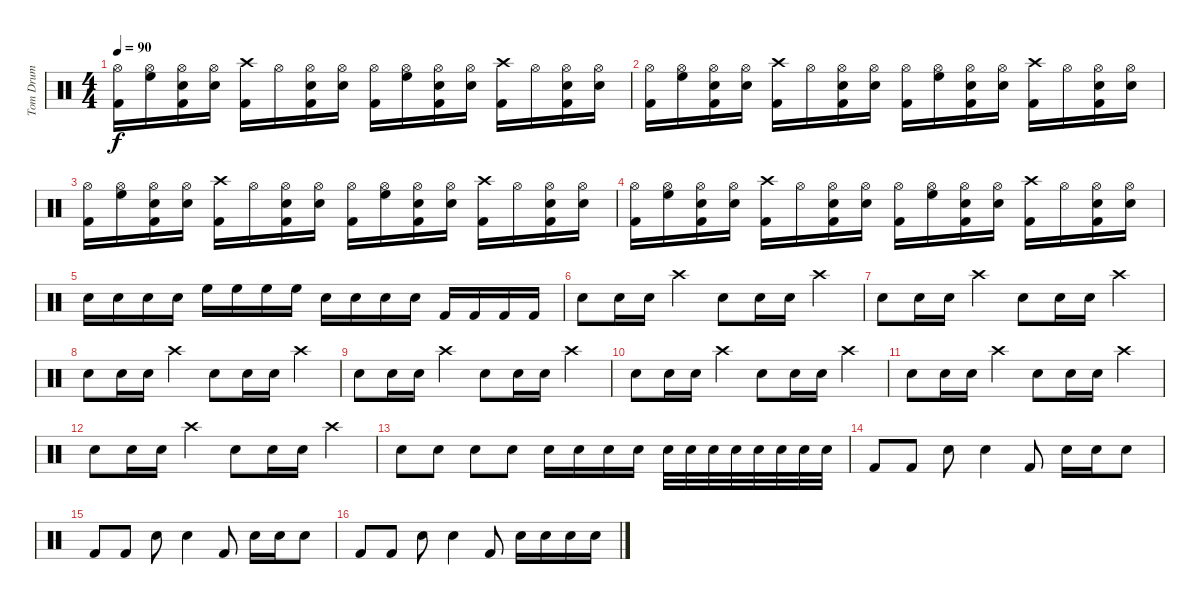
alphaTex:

\track ("Tom Drum" "Tom Drum") {instrument percussion}
\staff {score}
\articulation defaults
\ts (4 4)
\tempo 90
\clef neutral
\ks c
("Hi-Hat (open)" "Kick (hit) 2").16{dy f} ("Hi-Hat (open)" "High Floor Tom (hit)").16 ("Hi-Hat (open)" "Electric Snare (hit)" "Kick (hit) 2").16 ("Hi-Hat (open)" "Electric Snare (hit)").16 ("Crash high (hit)" "Kick (hit) 2").16 "Hi-Hat (open)".16 ("Hi-Hat (open)" "Electric Snare (hit)" "Kick (hit) 2").16 ("Hi-Hat (open)" "Electric Snare (hit)").16 ("Hi-Hat (open)" "Kick (hit) 2").16 ("Hi-Hat (open)" "High Floor Tom (hit)").16 ("Hi-Hat (open)" "Electric Snare (hit)" "Kick (hit) 2").16 ("Hi-Hat (open)" "Electric Snare (hit)").16 ("Crash high (hit)" "Kick (hit) 2").16 "Hi-Hat (open)".16 ("Hi-Hat (open)" "Electric Snare (hit)" "Kick (hit) 2").16 ("Hi-Hat (open)" "Electric Snare (hit)").16 |
("Hi-Hat (open)" "Kick (hit) 2").16 ("Hi-Hat (open)" "High Floor Tom (hit)").16 ("Hi-Hat (open)" "Electric Snare (hit)" "Kick (hit) 2").16 ("Hi-Hat (open)" "Electric Snare (hit)").16 ("Crash high (hit)" "Kick (hit) 2").16 "Hi-Hat (open)".16 ("Hi-Hat (open)" "Electric Snare (hit)" "Kick (hit) 2").16 ("Hi-Hat (open)" "Electric Snare (hit)").16 ("Hi-Hat (open)" "Kick (hit) 2").16 ("Hi-Hat (open)" "High Floor Tom (hit)").16 ("Hi-Hat (open)" "Electric Snare (hit)" "Kick (hit) 2").16 ("Hi-Hat (open)" "Electric Snare (hit)").16 ("Crash high (hit)" "Kick (hit) 2").16 "Hi-Hat (open)".16 ("Hi-Hat (open)" "Electric Snare (hit)" "Kick (hit) 2").16 ("Hi-Hat (open)" "Electric Snare (hit)").16 |
("Hi-Hat (open)" "Kick (hit) 2").16 ("Hi-Hat (open)" "High Floor Tom (hit)").16 ("Hi-Hat (open)" "Electric Snare (hit)" "Kick (hit) 2").16 ("Hi-Hat (open)" "Electric Snare (hit)").16 ("Crash high (hit)" "Kick (hit) 2").16 "Hi-Hat (open)".16 ("Hi-Hat (open)" "Electric Snare (hit)" "Kick (hit) 2").16 ("Hi-Hat (open)" "Electric Snare (hit)").16 ("Hi-Hat (open)" "Kick (hit) 2").16 ("Hi-Hat (open)" "High Floor Tom (hit)").16 ("Hi-Hat (open)" "Electric Snare (hit)" "Kick (hit) 2").16 ("Hi-Hat (open)" "Electric Snare (hit)").16 ("Crash high (hit)" "Kick (hit) 2").16 "Hi-Hat (open)".16 ("Hi-Hat (open)" "Electric Snare (hit)" "Kick (hit) 2").16 ("Hi-Hat (open)" "Electric Snare (hit)").16 |
("Hi-Hat (open)" "Kick (hit) 2").16 ("Hi-Hat (open)" "High Floor Tom (hit)").16 ("Hi-Hat (open)" "Electric Snare (hit)" "Kick (hit) 2").16 ("Hi-Hat (open)" "Electric Snare (hit)").16 ("Crash high (hit)" "Kick (hit) 2").16 "Hi-Hat (open)".16 ("Hi-Hat (open)" "Electric Snare (hit)" "Kick (hit) 2").16 ("Hi-Hat (open)" "Electric Snare (hit)").16 ("Hi-Hat (open)" "Kick (hit) 2").16 ("Hi-Hat (open)" "High Floor Tom (hit)").16 ("Hi-Hat (open)" "Electric Snare (hit)" "Kick (hit) 2").16 ("Hi-Hat (open)" "Electric Snare (hit)").16 ("Crash high (hit)" "Kick (hit) 2").16 "Hi-Hat (open)".16 ("Hi-Hat (open)" "Electric Snare (hit)" "Kick (hit) 2").16 ("Hi-Hat (open)" "Electric Snare (hit)").16 |
"Electric Snare (hit)".16 "Electric Snare (hit)".16 "Electric Snare (hit)".16 "Electric Snare (hit)".16 "High Floor Tom (hit)".16 "High Floor Tom (hit)".16 "High Floor Tom (hit)".16 "High Floor Tom (hit)".16 "Electric Snare (hit)".16 "Electric Snare (hit)".16 "Electric Snare (hit)".16 "Electric Snare (hit)".16 "Kick (hit) 2".16 "Kick (hit) 2".16 "Kick (hit) 2".16 "Kick (hit) 2".16 |
"Electric Snare (hit)".8 "Electric Snare (hit)".16 "Electric Snare (hit)".16 "Crash high (hit)".4 "Electric Snare (hit)".8 "Electric Snare (hit)".16 "Electric Snare (hit)".16 "Crash high (hit)".4 |
"Electric Snare (hit)".8 "Electric Snare (hit)".16 "Electric Snare (hit)".16 "Crash high (hit)".4 "Electric Snare (hit)".8 "Electric Snare (hit)".16 "Electric Snare (hit)".16 "Crash high (hit)".4 |
"Electric Snare (hit)".8 "Electric Snare (hit)".16 "Electric Snare (hit)".16 "Crash high (hit)".4 "Electric Snare (hit)".8 "Electric Snare (hit)".16 "Electric Snare (hit)".16 "Crash high (hit)".4 |
"Electric Snare (hit)".8 "Electric Snare (hit)".16 "Electric Snare (hit)".16 "Crash high (hit)".4 "Electric Snare (hit)".8 "Electric Snare (hit)".16 "Electric Snare (hit)".16 "Crash high (hit)".4 |
"Electric Snare (hit)".8 "Electric Snare (hit)".16 "Electric Snare (hit)".16 "Crash high (hit)".4 "Electric Snare (hit)".8 "Electric Snare (hit)".16 "Electric Snare (hit)".16 "Crash high (hit)".4 |
"Electric Snare (hit)".8 "Electric Snare (hit)".16 "Electric Snare (hit)".16 "Crash high (hit)".4 "Electric Snare (hit)".8 "Electric Snare (hit)".16 "Electric Snare (hit)".16 "Crash high (hit)".4 |
"Electric Snare (hit)".8 "Electric Snare (hit)".16 "Electric Snare (hit)".16 "Crash high (hit)".4 "Electric Snare (hit)".8 "Electric Snare (hit)".16 "Electric Snare (hit)".16 "Crash high (hit)".4 |
"Electric Snare (hit)".8 "Electric Snare (hit)".8 "Electric Snare (hit)".8 "Electric Snare (hit)".8 "Electric Snare (hit)".16 "Electric Snare (hit)".16 "Electric Snare (hit)".16 "Electric Snare (hit)".16 "Electric Snare (hit)".32 "Electric Snare (hit)".32 "Electric Snare (hit)".32 "Electric Snare (hit)".32 "Electric Snare (hit)".32 "Electric Snare (hit)".32 "Electric Snare (hit)".32 "Electric Snare (hit)".32 |
"Kick (hit) 2".8 "Kick (hit) 2".8 "Electric Snare (hit)".8 "Electric Snare (hit)".4 "Kick (hit) 2".8 "Electric Snare (hit)".16 "Electric Snare (hit)".16 "Electric Snare (hit)".8 |
"Kick (hit) 2".8 "Kick (hit) 2".8 "Electric Snare (hit)".8 "Electric Snare (hit)".4 "Kick (hit) 2".8 "Electric Snare (hit)".16 "Electric Snare (hit)".16 "Electric Snare (hit)".8 |
"Kick (hit) 2".8 "Kick (hit) 2".8 "Electric Snare (hit)".8 "Electric Snare (hit)".4 "Kick (hit) 2".8 "Electric Snare (hit)".16 "Electric Snare (hit)".16 "Electric Snare (hit)".16 "Electric Snare (hit)".16
